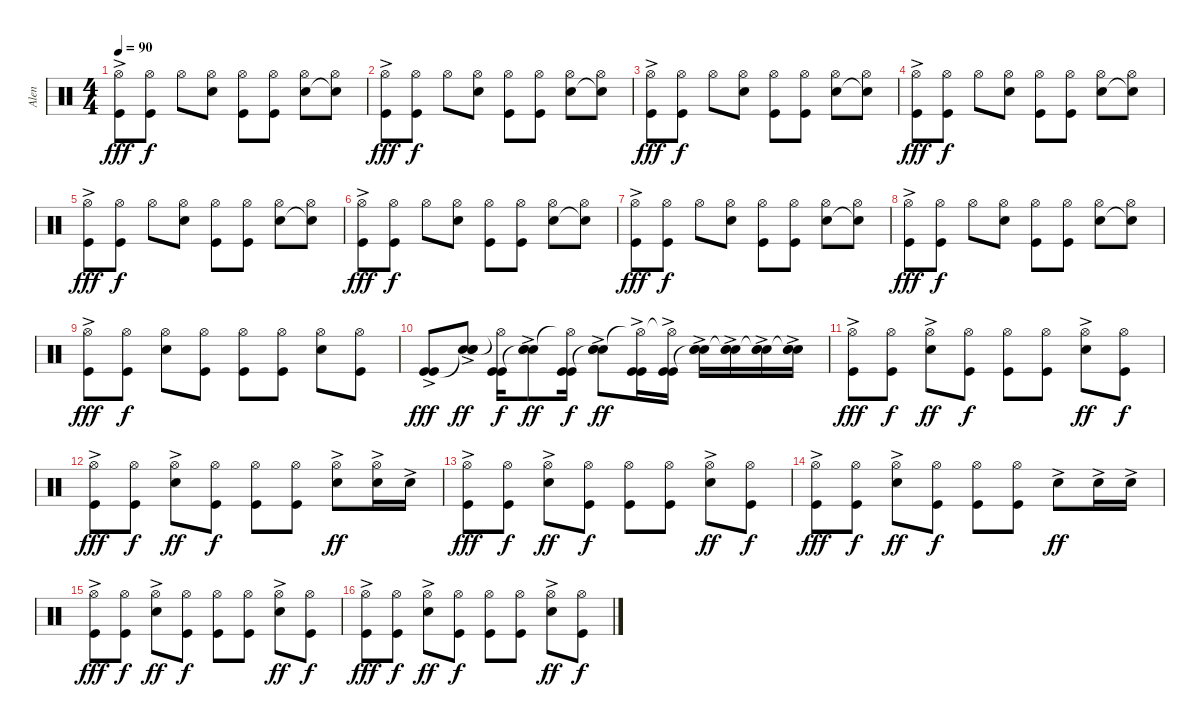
\track ("Alen" "Alen") {instrument percussion}
\staff {score}
\articulation defaults
\ts (4 4)
\tempo 90
\clef neutral
\ks c
("Kick (hit)"{ac} "Hi-Hat (open)").8{dy fff} ("Kick (hit)" "Hi-Hat (open)").8{dy f} "Hi-Hat (open)".8 ("Electric Snare (hit)" "Hi-Hat (open)").8 ("Kick (hit)" "Hi-Hat (open)").8 ("Kick (hit)" "Hi-Hat (open)").8 ("Electric Snare (hit)" "Hi-Hat (open)").8 ("Electric Snare (hit)"{t} "Hi-Hat (open)").8 |
("Kick (hit)"{ac} "Hi-Hat (open)").8{dy fff} ("Kick (hit)" "Hi-Hat (open)").8{dy f} "Hi-Hat (open)".8 ("Electric Snare (hit)" "Hi-Hat (open)").8 ("Kick (hit)" "Hi-Hat (open)").8 ("Kick (hit)" "Hi-Hat (open)").8 ("Electric Snare (hit)" "Hi-Hat (open)").8 ("Electric Snare (hit)"{t} "Hi-Hat (open)").8 |
("Kick (hit)"{ac} "Hi-Hat (open)").8{dy fff} ("Kick (hit)" "Hi-Hat (open)").8{dy f} "Hi-Hat (open)".8 ("Electric Snare (hit)" "Hi-Hat (open)").8 ("Kick (hit)" "Hi-Hat (open)").8 ("Kick (hit)" "Hi-Hat (open)").8 ("Electric Snare (hit)" "Hi-Hat (open)").8 ("Electric Snare (hit)"{t} "Hi-Hat (open)").8 |
("Kick (hit)"{ac} "Hi-Hat (open)").8{dy fff} ("Kick (hit)" "Hi-Hat (open)").8{dy f} "Hi-Hat (open)".8 ("Electric Snare (hit)" "Hi-Hat (open)").8 ("Kick (hit)" "Hi-Hat (open)").8 ("Kick (hit)" "Hi-Hat (open)").8 ("Electric Snare (hit)" "Hi-Hat (open)").8 ("Electric Snare (hit)"{t} "Hi-Hat (open)").8 |
("Kick (hit)"{ac} "Hi-Hat (open)").8{dy fff} ("Kick (hit)" "Hi-Hat (open)").8{dy f} "Hi-Hat (open)".8 ("Electric Snare (hit)" "Hi-Hat (open)").8 ("Kick (hit)" "Hi-Hat (open)").8 ("Kick (hit)" "Hi-Hat (open)").8 ("Electric Snare (hit)" "Hi-Hat (open)").8 ("Electric Snare (hit)"{t} "Hi-Hat (open)").8 |
("Kick (hit)"{ac} "Hi-Hat (open)").8{dy fff} ("Kick (hit)" "Hi-Hat (open)").8{dy f} "Hi-Hat (open)".8 ("Electric Snare (hit)" "Hi-Hat (open)").8 ("Kick (hit)" "Hi-Hat (open)").8 ("Kick (hit)" "Hi-Hat (open)").8 ("Electric Snare (hit)" "Hi-Hat (open)").8 ("Electric Snare (hit)"{t} "Hi-Hat (open)").8 |
("Kick (hit)"{ac} "Hi-Hat (open)").8{dy fff} ("Kick (hit)" "Hi-Hat (open)").8{dy f} "Hi-Hat (open)".8 ("Electric Snare (hit)" "Hi-Hat (open)").8 ("Kick (hit)" "Hi-Hat (open)").8 ("Kick (hit)" "Hi-Hat (open)").8 ("Electric Snare (hit)" "Hi-Hat (open)").8 ("Electric Snare (hit)"{t} "Hi-Hat (open)").8 |
("Kick (hit)"{ac} "Hi-Hat (open)").8{dy fff} ("Kick (hit)" "Hi-Hat (open)").8{dy f} "Hi-Hat (open)".8 ("Electric Snare (hit)" "Hi-Hat (open)").8 ("Kick (hit)" "Hi-Hat (open)").8 ("Kick (hit)" "Hi-Hat (open)").8 ("Electric Snare (hit)" "Hi-Hat (open)").8 ("Electric Snare (hit)"{t} "Hi-Hat (open)").8 |
("Kick (hit)"{ac} "Hi-Hat (open)").8{dy fff} ("Kick (hit)" "Hi-Hat (open)").8{dy f} ("Electric Snare (hit)" "Hi-Hat (open)").8 ("Kick (hit)" "Hi-Hat (open)").8 ("Kick (hit)" "Hi-Hat (open)").8 ("Kick (hit)" "Hi-Hat (open)").8 ("Electric Snare (hit)" "Hi-Hat (open)").8 ("Kick (hit)" "Hi-Hat (open)").8 |
("Kick (hit)"{ac} "Kick (hit)").8{dy fff} ("Electric Snare (hit)"{ac} "Snare (hit)"{t} "Snare (hit) 2").8{dy ff} ("Kick (hit)" "Kick (hit)" "Hi-Hat (open)"{t}).16{dy f} ("Electric Snare (hit)"{ac} "Snare (hit)"{t} "Snare (hit) 2").8{dy ff} ("Kick (hit)" "Kick (hit)" "Hi-Hat (open)"{t}).16{dy f} ("Electric Snare (hit)"{ac} "Snare (hit)"{t} "Snare (hit) 2").8{dy ff} ("Kick (hit)"{ac} "Kick (hit)" "Hi-Hat (open)"{t}).16 ("Kick (hit)"{ac} "Kick (hit)" "Hi-Hat (open)"{t}).16 ("Electric Snare (hit)"{ac} "Snare (hit)"{t} "Snare (hit) 2").16 ("Electric Snare (hit)"{ac} "Snare (hit)"{t} "Snare (hit) 2").16 ("Electric Snare (hit)"{ac} "Snare (hit)"{t} "Snare (hit) 2").16 ("Electric Snare (hit)"{ac} "Snare (hit)"{t} "Snare (hit) 2").16 |
("Kick (hit)"{ac} "Hi-Hat (open)").8{dy fff} ("Kick (hit)" "Hi-Hat (open)").8{dy f} ("Snare (hit) 2"{ac} "Hi-Hat (open)").8{dy ff} ("Kick (hit)" "Hi-Hat (open)").8{dy f} ("Kick (hit)" "Hi-Hat (open)").8 ("Kick (hit)" "Hi-Hat (open)").8 ("Snare (hit) 2"{ac} "Hi-Hat (open)").8{dy ff} ("Kick (hit)" "Hi-Hat (open)").8{dy f} |
("Kick (hit)"{ac} "Hi-Hat (open)").8{dy fff} ("Kick (hit)" "Hi-Hat (open)").8{dy f} ("Snare (hit) 2"{ac} "Hi-Hat (open)").8{dy ff} ("Kick (hit)" "Hi-Hat (open)").8{dy f} ("Kick (hit)" "Hi-Hat (open)").8 ("Kick (hit)" "Hi-Hat (open)").8 ("Snare (hit) 2"{ac} "Hi-Hat (open)").8{dy ff} ("Snare (hit) 2"{ac} "Hi-Hat (open)").16 "Snare (hit) 2"{ac}.16 |
("Kick (hit)"{ac} "Hi-Hat (open)").8{dy fff} ("Kick (hit)" "Hi-Hat (open)").8{dy f} ("Snare (hit) 2"{ac} "Hi-Hat (open)").8{dy ff} ("Kick (hit)" "Hi-Hat (open)").8{dy f} ("Kick (hit)" "Hi-Hat (open)").8 ("Kick (hit)" "Hi-Hat (open)").8 ("Snare (hit) 2"{ac} "Hi-Hat (open)").8{dy ff} ("Kick (hit)" "Hi-Hat (open)").8{dy f} |
("Kick (hit)"{ac} "Hi-Hat (open)").8{dy fff} ("Kick (hit)" "Hi-Hat (open)").8{dy f} ("Snare (hit) 2"{ac} "Hi-Hat (open)").8{dy ff} ("Kick (hit)" "Hi-Hat (open)").8{dy f} ("Kick (hit)" "Hi-Hat (open)").8 ("Kick (hit)" "Hi-Hat (open)").8 "Snare (hit) 2"{ac}.8{dy ff} "Snare (hit) 2"{ac}.16 "Snare (hit) 2"{ac}.16 |
("Kick (hit)"{ac} "Hi-Hat (open)").8{dy fff} ("Kick (hit)" "Hi-Hat (open)").8{dy f} ("Snare (hit) 2"{ac} "Hi-Hat (open)").8{dy ff} ("Kick (hit)" "Hi-Hat (open)").8{dy f} ("Kick (hit)" "Hi-Hat (open)").8 ("Kick (hit)" "Hi-Hat (open)").8 ("Snare (hit) 2"{ac} "Hi-Hat (open)").8{dy ff} ("Kick (hit)" "Hi-Hat (open)").8{dy f} |
("Kick (hit)"{ac} "Hi-Hat (open)").8{dy fff} ("Kick (hit)" "Hi-Hat (open)").8{dy f} ("Snare (hit) 2"{ac} "Hi-Hat (open)").8{dy ff} ("Kick (hit)" "Hi-Hat (open)").8{dy f} ("Kick (hit)" "Hi-Hat (open)").8 ("Kick (hit)" "Hi-Hat (open)").8 ("Snare (hit) 2"{ac} "Hi-Hat (open)").8{dy ff} ("Kick (hit)" "Hi-Hat (open)").8{dy f}
